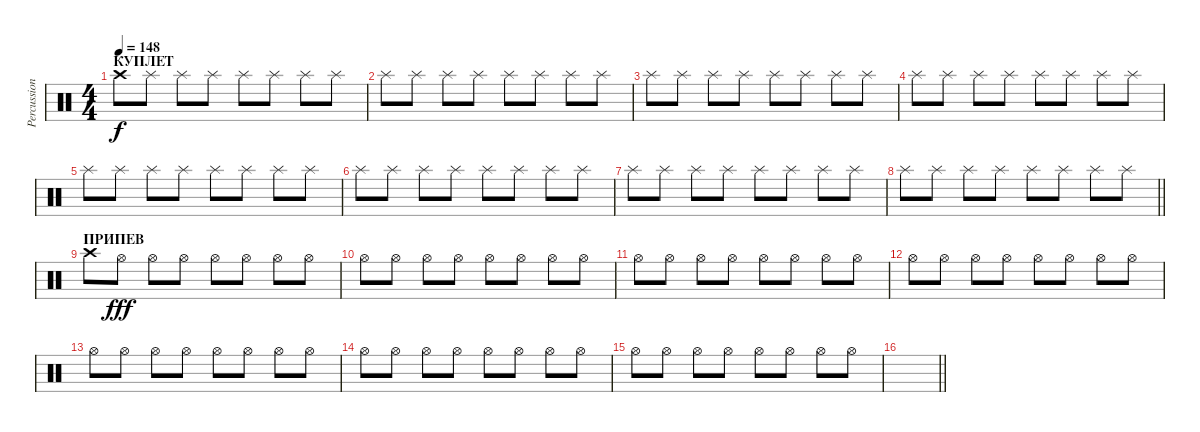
\track ("Percussion" "Percussion") {instrument percussion}
\staff {score}
\articulation defaults
\ts (4 4)
\section ("" "КУПЛЕТ")
\tempo 148
\clef neutral
\ks c "Crash high (hit)".8{dy f} "Splash (hit)".8 "Splash (hit)".8 "Splash (hit)".8 "Splash (hit)".8 "Splash (hit)".8 "Splash (hit)".8 "Splash (hit)".8
|
"Splash (hit)".8 "Splash (hit)".8 "Splash (hit)".8 "Splash (hit)".8 "Splash (hit)".8 "Splash (hit)".8 "Splash (hit)".8 "Splash (hit)".8 |
"Splash (hit)".8 "Splash (hit)".8 "Splash (hit)".8 "Splash (hit)".8 "Splash (hit)".8 "Splash (hit)".8 "Splash (hit)".8 "Splash (hit)".8 |
"Splash (hit)".8 "Splash (hit)".8 "Splash (hit)".8 "Splash (hit)".8 "Splash (hit)".8 "Splash (hit)".8 "Splash (hit)".8 "Splash (hit)".8 |
"Splash (hit)".8 "Splash (hit)".8 "Splash (hit)".8 "Splash (hit)".8 "Splash (hit)".8 "Splash (hit)".8 "Splash (hit)".8 "Splash (hit)".8 |
"Splash (hit)".8 "Splash (hit)".8 "Splash (hit)".8 "Splash (hit)".8 "Splash (hit)".8 "Splash (hit)".8 "Splash (hit)".8 "Splash (hit)".8 |
"Splash (hit)".8 "Splash (hit)".8 "Splash (hit)".8 "Splash (hit)".8 "Splash (hit)".8 "Splash (hit)".8 "Splash (hit)".8 "Splash (hit)".8 |
\barLineRight lightlight "Splash (hit)".8 "Splash (hit)".8 "Splash (hit)".8 "Splash (hit)".8 "Splash (hit)".8 "Splash (hit)".8 "Splash (hit)".8 "Splash (hit)".8
|
\section ("" "ПРИПЕВ")
"Crash high (hit)".8 "Hi-Hat (open)".8{dy fff} "Hi-Hat (open)".8 "Hi-Hat (open)".8 "Hi-Hat (open)".8 "Hi-Hat (open)".8 "Hi-Hat (open)".8 "Hi-Hat (open)".8 |
"Hi-Hat (open)".8 "Hi-Hat (open)".8 "Hi-Hat (open)".8 "Hi-Hat (open)".8 "Hi-Hat (open)".8 "Hi-Hat (open)".8 "Hi-Hat (open)".8 "Hi-Hat (open)".8 |
"Hi-Hat (open)".8 "Hi-Hat (open)".8 "Hi-Hat (open)".8 "Hi-Hat (open)".8 "Hi-Hat (open)".8 "Hi-Hat (open)".8 "Hi-Hat (open)".8 "Hi-Hat (open)".8 |
"Hi-Hat (open)".8 "Hi-Hat (open)".8 "Hi-Hat (open)".8 "Hi-Hat (open)".8 "Hi-Hat (open)".8 "Hi-Hat (open)".8 "Hi-Hat (open)".8 "Hi-Hat (open)".8 |
"Hi-Hat (open)".8 "Hi-Hat (open)".8 "Hi-Hat (open)".8 "Hi-Hat (open)".8 "Hi-Hat (open)".8 "Hi-Hat (open)".8 "Hi-Hat (open)".8 "Hi-Hat (open)".8 |
"Hi-Hat (open)".8 "Hi-Hat (open)".8 "Hi-Hat (open)".8 "Hi-Hat (open)".8 "Hi-Hat (open)".8 "Hi-Hat (open)".8 "Hi-Hat (open)".8 "Hi-Hat (open)".8 |
"Hi-Hat (open)".8 "Hi-Hat (open)".8 "Hi-Hat (open)".8 "Hi-Hat (open)".8 "Hi-Hat (open)".8 "Hi-Hat (open)".8 "Hi-Hat (open)".8 "Hi-Hat (open)".8 |
\barLineRight lightlight
